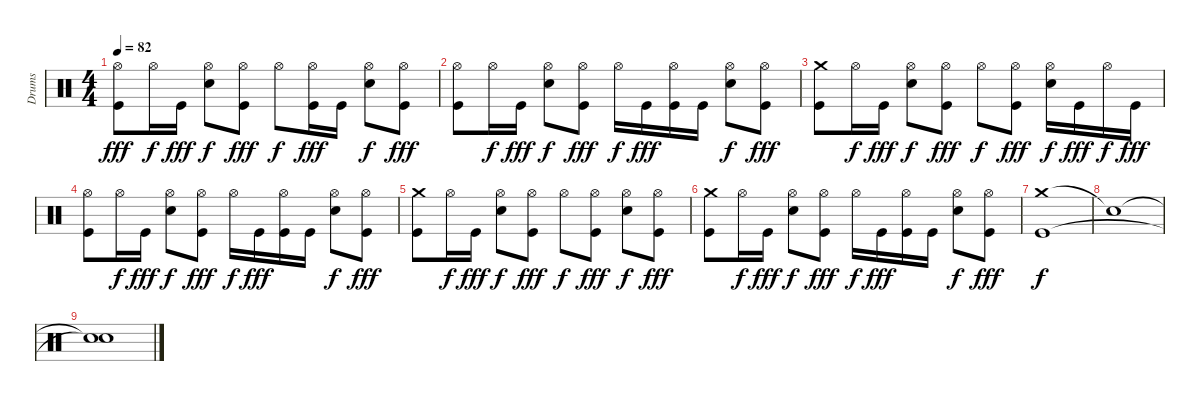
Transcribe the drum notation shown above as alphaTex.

\track ("Drums" "Drums") {instrument percussion}
\staff {score}
\articulation defaults
\ts (4 4)
\tempo 82
\clef neutral
\ks c
("Hi-Hat (open)" "Kick (hit)").8{dy fff} "Hi-Hat (open)".16{dy f} "Kick (hit)".16{dy fff} ("Hi-Hat (open)" "Snare (hit) 2").8{dy f} ("Hi-Hat (open)" "Kick (hit)").8{dy fff} "Hi-Hat (open)".8{dy f} ("Hi-Hat (open)" "Kick (hit)").16{dy fff} "Kick (hit)".16 ("Hi-Hat (open)" "Snare (hit) 2").8{dy f} ("Hi-Hat (open)" "Kick (hit)").8{dy fff} |
("Hi-Hat (open)" "Kick (hit)").8 "Hi-Hat (open)".16{dy f} "Kick (hit)".16{dy fff} ("Hi-Hat (open)" "Snare (hit) 2").8{dy f} ("Hi-Hat (open)" "Kick (hit)").8{dy fff} "Hi-Hat (open)".16{dy f} "Kick (hit)".16{dy fff} ("Hi-Hat (open)" "Kick (hit)").16 "Kick (hit)".16 ("Hi-Hat (open)" "Snare (hit) 2").8{dy f} ("Hi-Hat (open)" "Kick (hit)").8{dy fff} |
("Crash medium (hit)" "Kick (hit)").8 "Hi-Hat (open)".16{dy f} "Kick (hit)".16{dy fff} ("Hi-Hat (open)" "Snare (hit) 2").8{dy f} ("Hi-Hat (open)" "Kick (hit)").8{dy fff} "Hi-Hat (open)".8{dy f} ("Hi-Hat (open)" "Kick (hit)").8{dy fff} ("Hi-Hat (open)" "Snare (hit) 2").16{dy f} "Kick (hit)".16{dy fff} "Hi-Hat (open)".16{dy f} "Kick (hit)".16{dy fff} |
("Hi-Hat (open)" "Kick (hit)").8 "Hi-Hat (open)".16{dy f} "Kick (hit)".16{dy fff} ("Hi-Hat (open)" "Snare (hit) 2").8{dy f} ("Hi-Hat (open)" "Kick (hit)").8{dy fff} "Hi-Hat (open)".16{dy f} "Kick (hit)".16{dy fff} ("Hi-Hat (open)" "Kick (hit)").16 "Kick (hit)".16 ("Hi-Hat (open)" "Snare (hit) 2").8{dy f} ("Hi-Hat (open)" "Kick (hit)").8{dy fff} |
("Crash medium (hit)" "Kick (hit)").8 "Hi-Hat (open)".16{dy f} "Kick (hit)".16{dy fff} ("Hi-Hat (open)" "Snare (hit) 2").8{dy f} ("Hi-Hat (open)" "Kick (hit)").8{dy fff} "Hi-Hat (open)".8{dy f} ("Hi-Hat (open)" "Kick (hit)").8{dy fff} ("Hi-Hat (open)" "Snare (hit) 2").8{dy f} ("Hi-Hat (open)" "Kick (hit)").8{dy fff} |
("Crash medium (hit)" "Kick (hit)").8 "Hi-Hat (open)".16{dy f} "Kick (hit)".16{dy fff} ("Hi-Hat (open)" "Snare (hit) 2").8{dy f} ("Hi-Hat (open)" "Kick (hit)").8{dy fff} "Hi-Hat (open)".16{dy f} "Kick (hit)".16{dy fff} ("Hi-Hat (open)" "Kick (hit)").16 "Kick (hit)".16 ("Hi-Hat (open)" "Snare (hit) 2").8{dy f} ("Hi-Hat (open)" "Kick (hit)").8{dy fff} |
("Crash medium (hit)" "Kick (hit)").1{dy f} |
"Snare (hit)"{t}.1 |
("Snare (hit)"{t} "Snare (hit)"{t}).1
